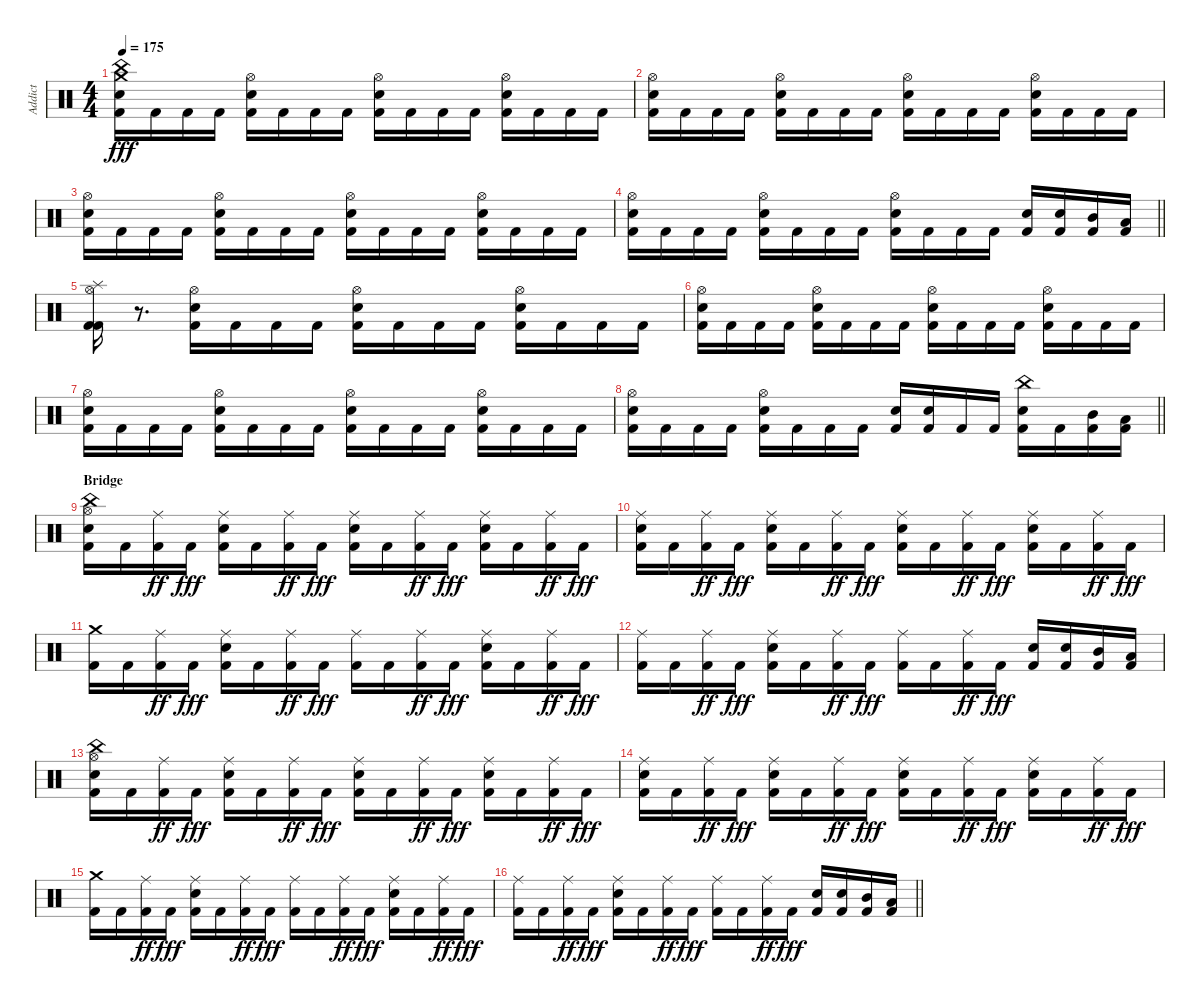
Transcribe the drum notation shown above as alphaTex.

\track ("Addict" "Addict") {instrument percussion}
\staff {score}
\articulation defaults
\ts (4 4)
\tempo 175
\clef neutral
\ks c
("Kick (hit) 2" "Snare (hit) 2" "Crash medium (hit)" "China (hit)").16{dy fff} "Kick (hit) 2".16 "Kick (hit) 2".16 "Kick (hit) 2".16 ("Kick (hit) 2" "Snare (hit) 2" "Hi-Hat (open)").16 "Kick (hit) 2".16 "Kick (hit) 2".16 "Kick (hit) 2".16 ("Kick (hit) 2" "Snare (hit) 2" "Hi-Hat (open)").16 "Kick (hit) 2".16 "Kick (hit) 2".16 "Kick (hit) 2".16 ("Kick (hit) 2" "Snare (hit) 2" "Hi-Hat (open)").16 "Kick (hit) 2".16 "Kick (hit) 2".16 "Kick (hit) 2".16 |
("Kick (hit) 2" "Snare (hit) 2" "Hi-Hat (open)").16 "Kick (hit) 2".16 "Kick (hit) 2".16 "Kick (hit) 2".16 ("Kick (hit) 2" "Snare (hit) 2" "Hi-Hat (open)").16 "Kick (hit) 2".16 "Kick (hit) 2".16 "Kick (hit) 2".16 ("Kick (hit) 2" "Snare (hit) 2" "Hi-Hat (open)").16 "Kick (hit) 2".16 "Kick (hit) 2".16 "Kick (hit) 2".16 ("Kick (hit) 2" "Snare (hit) 2" "Hi-Hat (open)").16 "Kick (hit) 2".16 "Kick (hit) 2".16 "Kick (hit) 2".16 |
("Kick (hit) 2" "Snare (hit) 2" "Hi-Hat (open)").16 "Kick (hit) 2".16 "Kick (hit) 2".16 "Kick (hit) 2".16 ("Kick (hit) 2" "Snare (hit) 2" "Hi-Hat (open)").16 "Kick (hit) 2".16 "Kick (hit) 2".16 "Kick (hit) 2".16 ("Kick (hit) 2" "Snare (hit) 2" "Hi-Hat (open)").16 "Kick (hit) 2".16 "Kick (hit) 2".16 "Kick (hit) 2".16 ("Kick (hit) 2" "Snare (hit) 2" "Hi-Hat (open)").16 "Kick (hit) 2".16 "Kick (hit) 2".16 "Kick (hit) 2".16 |
\barLineRight lightlight
("Kick (hit) 2" "Snare (hit) 2" "Hi-Hat (open)").16 "Kick (hit) 2".16 "Kick (hit) 2".16 "Kick (hit) 2".16 ("Kick (hit) 2" "Snare (hit) 2" "Hi-Hat (open)").16 "Kick (hit) 2".16 "Kick (hit) 2".16 "Kick (hit) 2".16 ("Kick (hit) 2" "Snare (hit) 2" "Hi-Hat (open)").16 "Kick (hit) 2".16 "Kick (hit) 2".16 "Kick (hit) 2".16 ("Kick (hit) 2" "Snare (hit) 2").16 ("Kick (hit) 2" "Snare (hit) 2").16 ("Kick (hit) 2" "Mid Tom (hit)").16 ("Kick (hit) 2" "Low Tom (hit)").16 |
("Kick (hit) 2" "Hi-Hat (open)" "Kick (hit) 2" "Splash (hit)").16 r.8{d} ("Kick (hit) 2" "Snare (hit) 2" "Hi-Hat (open)").16 "Kick (hit) 2".16 "Kick (hit) 2".16 "Kick (hit) 2".16 ("Kick (hit) 2" "Snare (hit) 2" "Hi-Hat (open)").16 "Kick (hit) 2".16 "Kick (hit) 2".16 "Kick (hit) 2".16 ("Kick (hit) 2" "Snare (hit) 2" "Hi-Hat (open)").16 "Kick (hit) 2".16 "Kick (hit) 2".16 "Kick (hit) 2".16 |
("Kick (hit) 2" "Snare (hit) 2" "Hi-Hat (open)").16 "Kick (hit) 2".16 "Kick (hit) 2".16 "Kick (hit) 2".16 ("Kick (hit) 2" "Snare (hit) 2" "Hi-Hat (open)").16 "Kick (hit) 2".16 "Kick (hit) 2".16 "Kick (hit) 2".16 ("Kick (hit) 2" "Snare (hit) 2" "Hi-Hat (open)").16 "Kick (hit) 2".16 "Kick (hit) 2".16 "Kick (hit) 2".16 ("Kick (hit) 2" "Snare (hit) 2" "Hi-Hat (open)").16 "Kick (hit) 2".16 "Kick (hit) 2".16 "Kick (hit) 2".16 |
("Kick (hit) 2" "Snare (hit) 2" "Hi-Hat (open)").16 "Kick (hit) 2".16 "Kick (hit) 2".16 "Kick (hit) 2".16 ("Kick (hit) 2" "Snare (hit) 2" "Hi-Hat (open)").16 "Kick (hit) 2".16 "Kick (hit) 2".16 "Kick (hit) 2".16 ("Kick (hit) 2" "Snare (hit) 2" "Hi-Hat (open)").16 "Kick (hit) 2".16 "Kick (hit) 2".16 "Kick (hit) 2".16 ("Kick (hit) 2" "Snare (hit) 2" "Hi-Hat (open)").16 "Kick (hit) 2".16 "Kick (hit) 2".16 "Kick (hit) 2".16 |
\barLineRight lightlight
("Kick (hit) 2" "Snare (hit) 2" "Hi-Hat (open)").16 "Kick (hit) 2".16 "Kick (hit) 2".16 "Kick (hit) 2".16 ("Kick (hit) 2" "Snare (hit) 2" "Hi-Hat (open)").16 "Kick (hit) 2".16 "Kick (hit) 2".16 "Kick (hit) 2".16 ("Kick (hit) 2" "Snare (hit) 2").16 ("Kick (hit) 2" "Snare (hit) 2").16 "Kick (hit) 2".16 "Kick (hit) 2".16 ("Kick (hit) 2" "Snare (hit) 2" "China (hit)").16 "Kick (hit) 2".16 ("Kick (hit) 2" "Mid Tom (hit)").16 ("Kick (hit) 2" "Low Tom (hit)").16 |
\section ("" "Bridge")
("Kick (hit) 2" "Hi-Hat (open)" "Snare (hit) 2" "China (hit)").16 "Kick (hit) 2".16 ("Kick (hit) 2" "Ride (middle)").16{dy ff} "Kick (hit) 2".16{dy fff} ("Kick (hit) 2" "Snare (hit) 2" "Ride (middle)").16 "Kick (hit) 2".16 ("Kick (hit) 2" "Ride (middle)").16{dy ff} "Kick (hit) 2".16{dy fff} ("Kick (hit) 2" "Snare (hit) 2" "Ride (middle)").16 "Kick (hit) 2".16 ("Kick (hit) 2" "Ride (middle)").16{dy ff} "Kick (hit) 2".16{dy fff} ("Kick (hit) 2" "Snare (hit) 2" "Ride (middle)").16 "Kick (hit) 2".16 ("Kick (hit) 2" "Ride (middle)").16{dy ff} "Kick (hit) 2".16{dy fff} |
("Kick (hit) 2" "Snare (hit) 2" "Ride (middle)").16 "Kick (hit) 2".16 ("Kick (hit) 2" "Ride (middle)").16{dy ff} "Kick (hit) 2".16{dy fff} ("Kick (hit) 2" "Snare (hit) 2" "Ride (middle)").16 "Kick (hit) 2".16 ("Kick (hit) 2" "Ride (middle)").16{dy ff} "Kick (hit) 2".16{dy fff} ("Kick (hit) 2" "Snare (hit) 2" "Ride (middle)").16 "Kick (hit) 2".16 ("Kick (hit) 2" "Ride (middle)").16{dy ff} "Kick (hit) 2".16{dy fff} ("Kick (hit) 2" "Snare (hit) 2" "Ride (middle)").16 "Kick (hit) 2".16 ("Kick (hit) 2" "Ride (middle)").16{dy ff} "Kick (hit) 2".16{dy fff} |
("Kick (hit) 2" "Crash medium (hit)").16 "Kick (hit) 2".16 ("Kick (hit) 2" "Ride (middle)").16{dy ff} "Kick (hit) 2".16{dy fff} ("Kick (hit) 2" "Snare (hit) 2" "Ride (middle)").16 "Kick (hit) 2".16 ("Kick (hit) 2" "Ride (middle)").16{dy ff} "Kick (hit) 2".16{dy fff} ("Kick (hit) 2" "Ride (middle)").16 "Kick (hit) 2".16 ("Kick (hit) 2" "Ride (middle)").16{dy ff} "Kick (hit) 2".16{dy fff} ("Kick (hit) 2" "Snare (hit) 2" "Ride (middle)").16 "Kick (hit) 2".16 ("Kick (hit) 2" "Ride (middle)").16{dy ff} "Kick (hit) 2".16{dy fff} |
("Kick (hit) 2" "Ride (middle)").16 "Kick (hit) 2".16 ("Kick (hit) 2" "Ride (middle)").16{dy ff} "Kick (hit) 2".16{dy fff} ("Kick (hit) 2" "Snare (hit) 2" "Ride (middle)").16 "Kick (hit) 2".16 ("Kick (hit) 2" "Ride (middle)").16{dy ff} "Kick (hit) 2".16{dy fff} ("Kick (hit) 2" "Ride (middle)").16 "Kick (hit) 2".16 ("Kick (hit) 2" "Ride (middle)").16{dy ff} "Kick (hit) 2".16{dy fff} ("Kick (hit) 2" "Snare (hit) 2").16 ("Kick (hit) 2" "Snare (hit) 2").16 ("Kick (hit) 2" "Mid Tom (hit)").16 ("Kick (hit) 2" "Low Tom (hit)").16 |
("Kick (hit) 2" "Hi-Hat (open)" "Snare (hit) 2" "China (hit)").16 "Kick (hit) 2".16 ("Kick (hit) 2" "Ride (middle)").16{dy ff} "Kick (hit) 2".16{dy fff} ("Kick (hit) 2" "Snare (hit) 2" "Ride (middle)").16 "Kick (hit) 2".16 ("Kick (hit) 2" "Ride (middle)").16{dy ff} "Kick (hit) 2".16{dy fff} ("Kick (hit) 2" "Snare (hit) 2" "Ride (middle)").16 "Kick (hit) 2".16 ("Kick (hit) 2" "Ride (middle)").16{dy ff} "Kick (hit) 2".16{dy fff} ("Kick (hit) 2" "Snare (hit) 2" "Ride (middle)").16 "Kick (hit) 2".16 ("Kick (hit) 2" "Ride (middle)").16{dy ff} "Kick (hit) 2".16{dy fff} |
("Kick (hit) 2" "Snare (hit) 2" "Ride (middle)").16 "Kick (hit) 2".16 ("Kick (hit) 2" "Ride (middle)").16{dy ff} "Kick (hit) 2".16{dy fff} ("Kick (hit) 2" "Snare (hit) 2" "Ride (middle)").16 "Kick (hit) 2".16 ("Kick (hit) 2" "Ride (middle)").16{dy ff} "Kick (hit) 2".16{dy fff} ("Kick (hit) 2" "Snare (hit) 2" "Ride (middle)").16 "Kick (hit) 2".16 ("Kick (hit) 2" "Ride (middle)").16{dy ff} "Kick (hit) 2".16{dy fff} ("Kick (hit) 2" "Snare (hit) 2" "Ride (middle)").16 "Kick (hit) 2".16 ("Kick (hit) 2" "Ride (middle)").16{dy ff} "Kick (hit) 2".16{dy fff} |
("Kick (hit) 2" "Crash medium (hit)").16 "Kick (hit) 2".16 ("Kick (hit) 2" "Ride (middle)").16{dy ff} "Kick (hit) 2".16{dy fff} ("Kick (hit) 2" "Snare (hit) 2" "Ride (middle)").16 "Kick (hit) 2".16 ("Kick (hit) 2" "Ride (middle)").16{dy ff} "Kick (hit) 2".16{dy fff} ("Kick (hit) 2" "Ride (middle)").16 "Kick (hit) 2".16 ("Kick (hit) 2" "Ride (middle)").16{dy ff} "Kick (hit) 2".16{dy fff} ("Kick (hit) 2" "Snare (hit) 2" "Ride (middle)").16 "Kick (hit) 2".16 ("Kick (hit) 2" "Ride (middle)").16{dy ff} "Kick (hit) 2".16{dy fff} |
\barLineRight lightlight
("Kick (hit) 2" "Ride (middle)").16 "Kick (hit) 2".16 ("Kick (hit) 2" "Ride (middle)").16{dy ff} "Kick (hit) 2".16{dy fff} ("Kick (hit) 2" "Snare (hit) 2" "Ride (middle)").16 "Kick (hit) 2".16 ("Kick (hit) 2" "Ride (middle)").16{dy ff} "Kick (hit) 2".16{dy fff} ("Kick (hit) 2" "Ride (middle)").16 "Kick (hit) 2".16 ("Kick (hit) 2" "Ride (middle)").16{dy ff} "Kick (hit) 2".16{dy fff} ("Kick (hit) 2" "Snare (hit) 2").16 ("Kick (hit) 2" "Snare (hit) 2").16 ("Kick (hit) 2" "Mid Tom (hit)").16 ("Kick (hit) 2" "Low Tom (hit)").16
